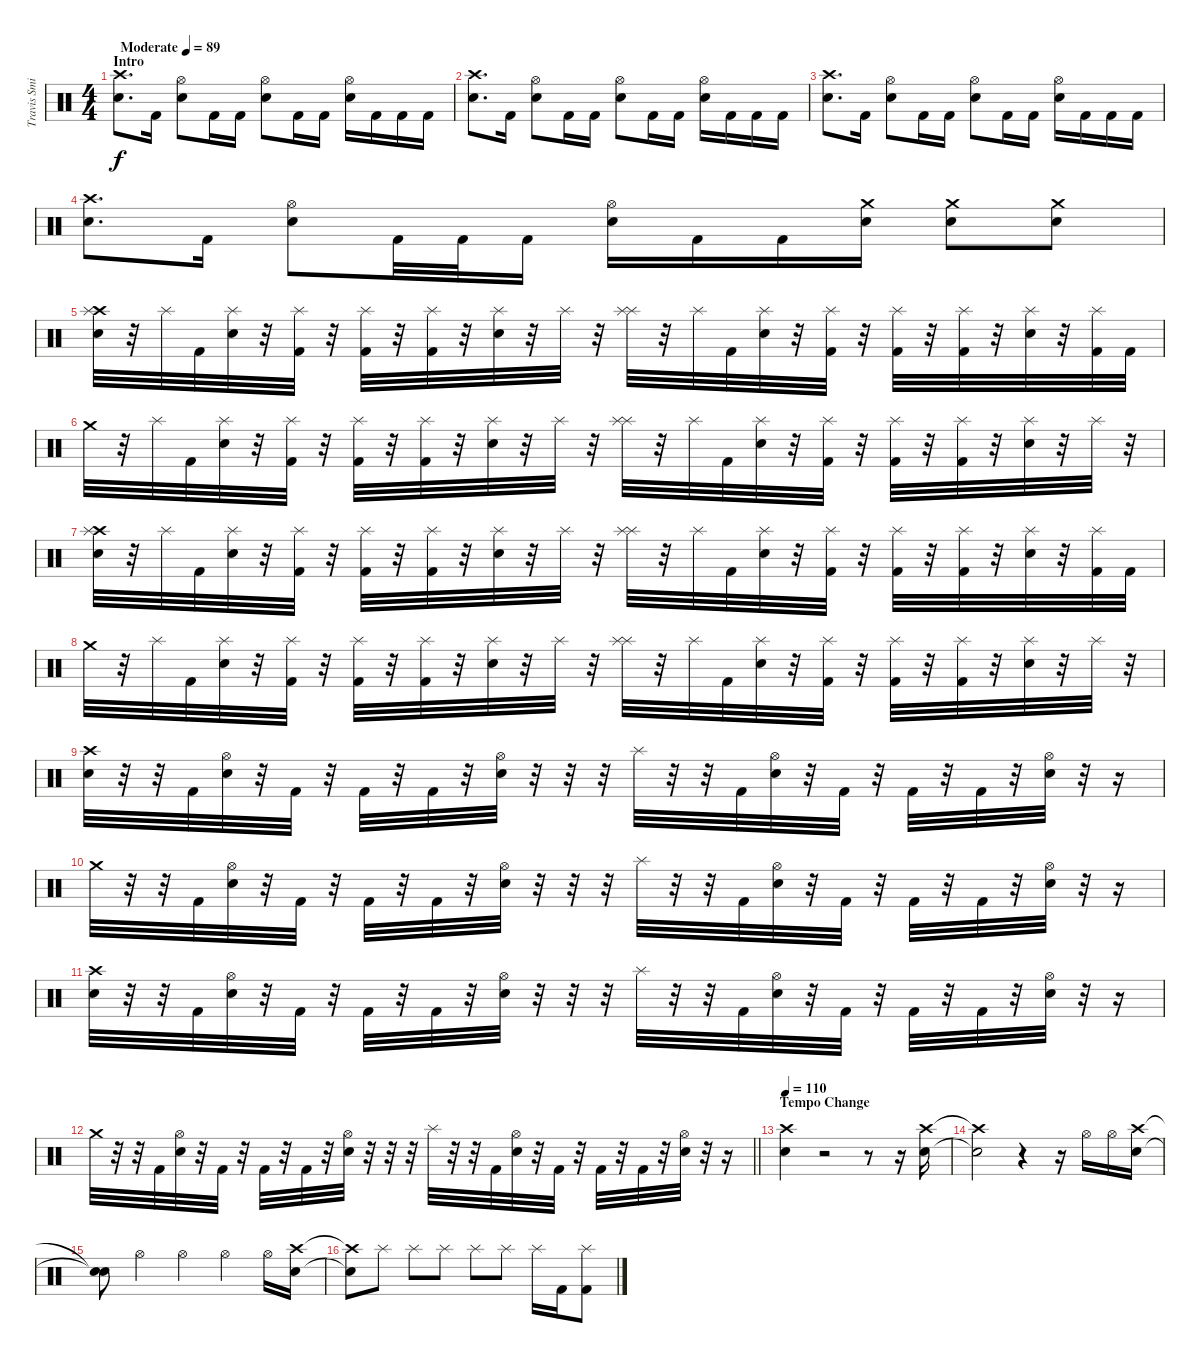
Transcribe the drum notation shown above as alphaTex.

\track ("Travis Smith" "Travis Smi") {instrument percussion}
\staff {score}
\articulation defaults
\ts (4 4)
\section ("" "Intro")
\tempo (89 "Moderate")
\clef neutral
\ks c
("Crash high (hit)" "Snare (hit) 2").8{d dy f} "Kick (hit) 2".16 ("Hi-Hat (open)" "Snare (hit) 2").8 "Kick (hit) 2".16 "Kick (hit) 2".16 ("Hi-Hat (open)" "Snare (hit) 2").8 "Kick (hit) 2".16 "Kick (hit) 2".16 ("Hi-Hat (open)" "Snare (hit) 2").16 "Kick (hit) 2".16 "Kick (hit) 2".16 "Kick (hit) 2".16 |
("Crash high (hit)" "Snare (hit) 2").8{d} "Kick (hit) 2".16 ("Hi-Hat (open)" "Snare (hit) 2").8 "Kick (hit) 2".16 "Kick (hit) 2".16 ("Hi-Hat (open)" "Snare (hit) 2").8 "Kick (hit) 2".16 "Kick (hit) 2".16 ("Hi-Hat (open)" "Snare (hit) 2").16 "Kick (hit) 2".16 "Kick (hit) 2".16 "Kick (hit) 2".16 |
("Crash high (hit)" "Snare (hit) 2").8{d} "Kick (hit) 2".16 ("Hi-Hat (open)" "Snare (hit) 2").8 "Kick (hit) 2".16 "Kick (hit) 2".16 ("Hi-Hat (open)" "Snare (hit) 2").8 "Kick (hit) 2".16 "Kick (hit) 2".16 ("Hi-Hat (open)" "Snare (hit) 2").16 "Kick (hit) 2".16 "Kick (hit) 2".16 "Kick (hit) 2".16 |
("Crash high (hit)" "Snare (hit) 2").8{d} "Kick (hit) 2".16 ("Hi-Hat (open)" "Snare (hit) 2").8 "Kick (hit) 2".32 "Kick (hit) 2".32 "Kick (hit) 2".16 ("Hi-Hat (open)" "Snare (hit) 2").16 "Kick (hit) 2".16 "Kick (hit) 2".16 ("Crash medium (hit)" "Snare (hit) 2").16 ("Crash medium (hit)" "Snare (hit) 2").8 ("Crash medium (hit)" "Snare (hit) 2").8 |
("Crash high (hit)" "Splash (hit)" "Snare (hit) 2").32 r.32 "Splash (hit)".32 "Kick (hit) 2".32 ("Splash (hit)" "Snare (hit) 2").32 r.32 ("Splash (hit)" "Kick (hit) 2").32 r.32 ("Splash (hit)" "Kick (hit) 2").32 r.32 ("Splash (hit)" "Kick (hit) 2").32 r.32 ("Splash (hit)" "Snare (hit) 2").32 r.32 "Splash (hit)".32 r.32 ("Splash (hit)" "Splash (hit)").32 r.32 "Splash (hit)".32 "Kick (hit) 2".32 ("Splash (hit)" "Snare (hit) 2").32 r.32 ("Splash (hit)" "Kick (hit) 2").32 r.32 ("Splash (hit)" "Kick (hit) 2").32 r.32 ("Splash (hit)" "Kick (hit) 2").32 r.32 ("Splash (hit)" "Snare (hit) 2").32 r.32 ("Splash (hit)" "Kick (hit) 2").32 "Kick (hit) 2".32 |
"Crash medium (hit)".32 r.32 "Splash (hit)".32 "Kick (hit) 2".32 ("Splash (hit)" "Snare (hit) 2").32 r.32 ("Splash (hit)" "Kick (hit) 2").32 r.32 ("Splash (hit)" "Kick (hit) 2").32 r.32 ("Splash (hit)" "Kick (hit) 2").32 r.32 ("Splash (hit)" "Snare (hit) 2").32 r.32 "Splash (hit)".32 r.32 ("Splash (hit)" "Splash (hit)").32 r.32 "Splash (hit)".32 "Kick (hit) 2".32 ("Splash (hit)" "Snare (hit) 2").32 r.32 ("Splash (hit)" "Kick (hit) 2").32 r.32 ("Splash (hit)" "Kick (hit) 2").32 r.32 ("Splash (hit)" "Kick (hit) 2").32 r.32 ("Splash (hit)" "Snare (hit) 2").32 r.32 "Splash (hit)".32 r.32 |
("Crash high (hit)" "Splash (hit)" "Snare (hit) 2").32 r.32 "Splash (hit)".32 "Kick (hit) 2".32 ("Splash (hit)" "Snare (hit) 2").32 r.32 ("Splash (hit)" "Kick (hit) 2").32 r.32 ("Splash (hit)" "Kick (hit) 2").32 r.32 ("Splash (hit)" "Kick (hit) 2").32 r.32 ("Splash (hit)" "Snare (hit) 2").32 r.32 "Splash (hit)".32 r.32 ("Splash (hit)" "Splash (hit)").32 r.32 "Splash (hit)".32 "Kick (hit) 2".32 ("Splash (hit)" "Snare (hit) 2").32 r.32 ("Splash (hit)" "Kick (hit) 2").32 r.32 ("Splash (hit)" "Kick (hit) 2").32 r.32 ("Splash (hit)" "Kick (hit) 2").32 r.32 ("Splash (hit)" "Snare (hit) 2").32 r.32 ("Splash (hit)" "Kick (hit) 2").32 "Kick (hit) 2".32 |
"Crash medium (hit)".32 r.32 "Splash (hit)".32 "Kick (hit) 2".32 ("Splash (hit)" "Snare (hit) 2").32 r.32 ("Splash (hit)" "Kick (hit) 2").32 r.32 ("Splash (hit)" "Kick (hit) 2").32 r.32 ("Splash (hit)" "Kick (hit) 2").32 r.32 ("Splash (hit)" "Snare (hit) 2").32 r.32 "Splash (hit)".32 r.32 ("Splash (hit)" "Splash (hit)").32 r.32 "Splash (hit)".32 "Kick (hit) 2".32 ("Splash (hit)" "Snare (hit) 2").32 r.32 ("Splash (hit)" "Kick (hit) 2").32 r.32 ("Splash (hit)" "Kick (hit) 2").32 r.32 ("Splash (hit)" "Kick (hit) 2").32 r.32 ("Splash (hit)" "Snare (hit) 2").32 r.32 "Splash (hit)".32 r.32 |
("Crash high (hit)" "Snare (hit) 2").32 r.32 r.32 "Kick (hit) 2".32 ("Hi-Hat (open)" "Snare (hit) 2").32 r.32 "Kick (hit) 2".32 r.32 "Kick (hit) 2".32 r.32 "Kick (hit) 2".32 r.32 ("Hi-Hat (open)" "Snare (hit) 2").32 r.32 r.32 r.32 "Splash (hit)".32 r.32 r.32 "Kick (hit) 2".32 ("Hi-Hat (open)" "Snare (hit) 2").32 r.32 "Kick (hit) 2".32 r.32 "Kick (hit) 2".32 r.32 "Kick (hit) 2".32 r.32 ("Hi-Hat (open)" "Snare (hit) 2").32 r.32 r.16 |
"Crash medium (hit)".32 r.32 r.32 "Kick (hit) 2".32 ("Hi-Hat (open)" "Snare (hit) 2").32 r.32 "Kick (hit) 2".32 r.32 "Kick (hit) 2".32 r.32 "Kick (hit) 2".32 r.32 ("Hi-Hat (open)" "Snare (hit) 2").32 r.32 r.32 r.32 "Splash (hit)".32 r.32 r.32 "Kick (hit) 2".32 ("Hi-Hat (open)" "Snare (hit) 2").32 r.32 "Kick (hit) 2".32 r.32 "Kick (hit) 2".32 r.32 "Kick (hit) 2".32 r.32 ("Hi-Hat (open)" "Snare (hit) 2").32 r.32 r.16 |
("Crash high (hit)" "Snare (hit) 2").32 r.32 r.32 "Kick (hit) 2".32 ("Hi-Hat (open)" "Snare (hit) 2").32 r.32 "Kick (hit) 2".32 r.32 "Kick (hit) 2".32 r.32 "Kick (hit) 2".32 r.32 ("Hi-Hat (open)" "Snare (hit) 2").32 r.32 r.32 r.32 "Splash (hit)".32 r.32 r.32 "Kick (hit) 2".32 ("Hi-Hat (open)" "Snare (hit) 2").32 r.32 "Kick (hit) 2".32 r.32 "Kick (hit) 2".32 r.32 "Kick (hit) 2".32 r.32 ("Hi-Hat (open)" "Snare (hit) 2").32 r.32 r.16 |
\barLineRight lightlight "Crash medium (hit)".32
r.32 r.32 "Kick (hit) 2".32 ("Hi-Hat (open)" "Snare (hit) 2").32 r.32 "Kick (hit) 2".32 r.32 "Kick (hit) 2".32 r.32 "Kick (hit) 2".32 r.32 ("Hi-Hat (open)" "Snare (hit) 2").32 r.32 r.32 r.32 "Splash (hit)".32 r.32 r.32 "Kick (hit) 2".32 ("Hi-Hat (open)" "Snare (hit) 2").32 r.32 "Kick (hit) 2".32 r.32 "Kick (hit) 2".32 r.32 "Kick (hit) 2".32 r.32 ("Hi-Hat (open)" "Snare (hit) 2").32 r.32 r.16 |
\section ("" "Tempo Change")
\tempo 110
("Crash high (hit)" "Snare (hit) 2").4 r.2 r.8 r.16 ("Crash high (hit)" "Snare (hit) 2").16 |
("Crash high (hit)"{t} "Snare (hit) 2"{t}).2 r.4 r.16 "Hi-Hat (open)".16 "Hi-Hat (open)".16 ("Crash high (hit)" "Snare (hit) 2").16 |
("Snare (hit)"{t} "Snare (hit)"{t}).8 "Hi-Hat (open)".4 "Hi-Hat (open)".4 "Hi-Hat (open)".4 "Hi-Hat (open)".16 ("Crash high (hit)" "Snare (hit) 2").16 |
("Crash high (hit)"{t} "Snare (hit) 2"{t}).8 "Splash (hit)".8 "Splash (hit)".8 "Splash (hit)".8 "Splash (hit)".8 "Splash (hit)".8 "Splash (hit)".16 "Kick (hit) 2".16 ("Splash (hit)" "Kick (hit) 2").8
